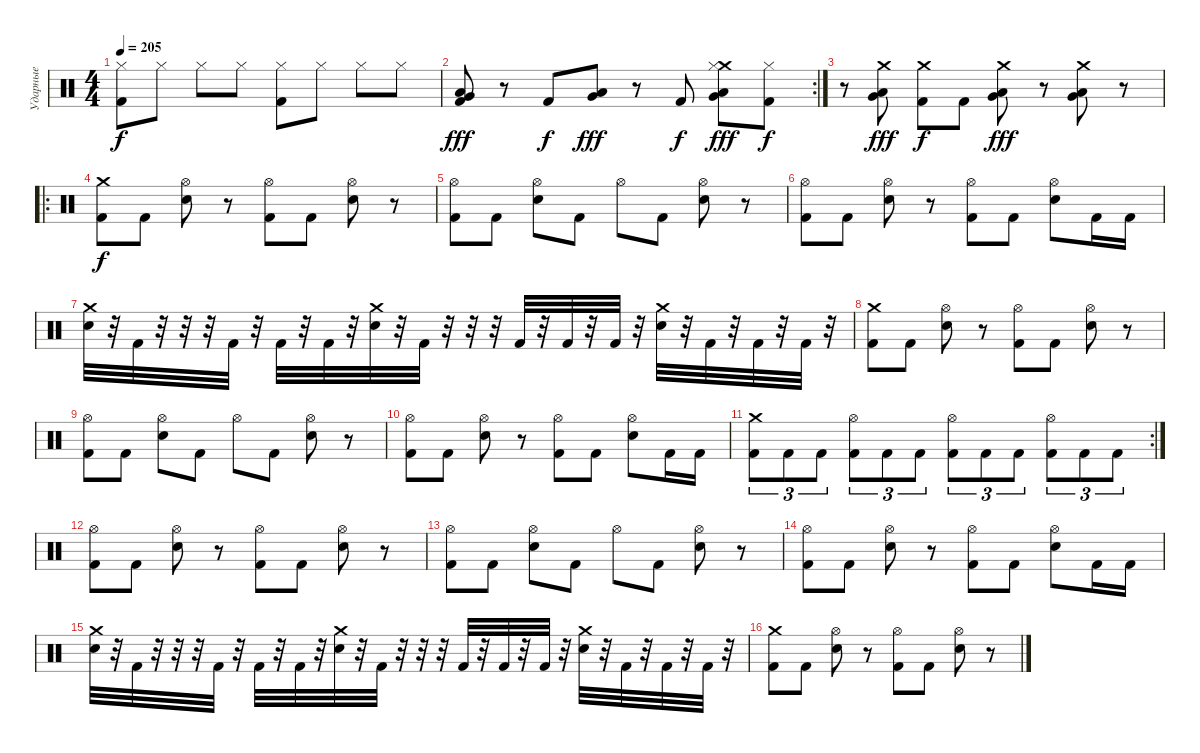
\track ("Ударные" "Ударные") {instrument percussion}
\staff {score}
\articulation defaults
\ts (4 4)
\tempo 205
\clef neutral
\ks c
("Hi-Hat (closed)" "Kick (hit) 2").8{dy f} "Hi-Hat (closed)".8 "Hi-Hat (closed)".8 "Hi-Hat (closed)".8 ("Hi-Hat (closed)" "Kick (hit) 2").8 "Hi-Hat (closed)".8 "Hi-Hat (closed)".8 "Hi-Hat (closed)".8 |
\rc 2
("Low Floor Tom (hit)" "Very Low Tom (hit)" "Kick (hit) 2").8{dy fff} r.8 "Kick (hit) 2".8{dy f} ("Low Floor Tom (hit)" "Very Low Tom (hit)").8{dy fff} r.8 "Kick (hit) 2".8{dy f} ("Crash medium (hit)" "Low Floor Tom (hit)" "Very Low Tom (hit)" "Hi-Hat (closed)").8{dy fff} ("Hi-Hat (closed)" "Kick (hit) 2").8{dy f} |
r.8 ("Low Floor Tom (hit)" "Very Low Tom (hit)" "Crash medium (hit)").8{dy fff} ("Crash medium (hit)" "Kick (hit) 2").8{dy f} "Kick (hit) 2".8 ("Crash medium (hit)" "Low Floor Tom (hit)" "Very Low Tom (hit)").8{dy fff} r.8 ("Crash medium (hit)" "Low Floor Tom (hit)" "Very Low Tom (hit)").8 r.8 |
\ro
("Crash medium (hit)" "Kick (hit) 2").8{dy f} "Kick (hit) 2".8 ("Hi-Hat (open)" "Electric Snare (hit)").8 r.8 ("Hi-Hat (open)" "Kick (hit) 2").8 "Kick (hit) 2".8 ("Hi-Hat (open)" "Electric Snare (hit)").8 r.8 |
("Hi-Hat (open)" "Kick (hit) 2").8 "Kick (hit) 2".8 ("Hi-Hat (open)" "Electric Snare (hit)").8 "Kick (hit) 2".8 "Hi-Hat (open)".8 "Kick (hit) 2".8 ("Hi-Hat (open)" "Electric Snare (hit)").8 r.8 |
("Hi-Hat (open)" "Kick (hit) 2").8 "Kick (hit) 2".8 ("Hi-Hat (open)" "Electric Snare (hit)").8 r.8 ("Hi-Hat (open)" "Kick (hit) 2").8 "Kick (hit) 2".8 ("Hi-Hat (open)" "Electric Snare (hit)").8 "Kick (hit) 2".16 "Kick (hit) 2".16 |
("Crash medium (hit)" "Electric Snare (hit)").32 r.32 "Kick (hit) 2".32 r.32 r.32 r.32 "Kick (hit) 2".32 r.32 "Kick (hit) 2".32 r.32 "Kick (hit) 2".32 r.32 ("Crash medium (hit)" "Electric Snare (hit)").32 r.32 "Kick (hit) 2".32 r.32 r.32 r.32 "Kick (hit) 2".32 r.32 "Kick (hit) 2".32 r.32 "Kick (hit) 2".32 r.32 ("Crash medium (hit)" "Electric Snare (hit)").32 r.32 "Kick (hit) 2".32 r.32 "Kick (hit) 2".32 r.32 "Kick (hit) 2".32 r.32 |
("Crash medium (hit)" "Kick (hit) 2").8 "Kick (hit) 2".8 ("Hi-Hat (open)" "Electric Snare (hit)").8 r.8 ("Hi-Hat (open)" "Kick (hit) 2").8 "Kick (hit) 2".8 ("Hi-Hat (open)" "Electric Snare (hit)").8 r.8 |
("Hi-Hat (open)" "Kick (hit) 2").8 "Kick (hit) 2".8 ("Hi-Hat (open)" "Electric Snare (hit)").8 "Kick (hit) 2".8 "Hi-Hat (open)".8 "Kick (hit) 2".8 ("Hi-Hat (open)" "Electric Snare (hit)").8 r.8 |
("Hi-Hat (open)" "Kick (hit) 2").8 "Kick (hit) 2".8 ("Hi-Hat (open)" "Electric Snare (hit)").8 r.8 ("Hi-Hat (open)" "Kick (hit) 2").8 "Kick (hit) 2".8 ("Hi-Hat (open)" "Electric Snare (hit)").8 "Kick (hit) 2".16 "Kick (hit) 2".16 |
\rc 2
("Crash medium (hit)" "Kick (hit) 2").8{tu (3 2)} "Kick (hit) 2".8{tu (3 2)} "Kick (hit) 2".8{tu (3 2)} ("Hi-Hat (open)" "Kick (hit) 2").8{tu (3 2)} "Kick (hit) 2".8{tu (3 2)} "Kick (hit) 2".8{tu (3 2)} ("Hi-Hat (open)" "Kick (hit) 2").8{tu (3 2)} "Kick (hit) 2".8{tu (3 2)} "Kick (hit) 2".8{tu (3 2)} ("Hi-Hat (open)" "Kick (hit) 2").8{tu (3 2)} "Kick (hit) 2".8{tu (3 2)} "Kick (hit) 2".8{tu (3 2)} |
("Hi-Hat (open)" "Kick (hit) 2").8 "Kick (hit) 2".8 ("Hi-Hat (open)" "Electric Snare (hit)").8 r.8 ("Hi-Hat (open)" "Kick (hit) 2").8 "Kick (hit) 2".8 ("Hi-Hat (open)" "Electric Snare (hit)").8 r.8 |
("Hi-Hat (open)" "Kick (hit) 2").8 "Kick (hit) 2".8 ("Hi-Hat (open)" "Electric Snare (hit)").8 "Kick (hit) 2".8 "Hi-Hat (open)".8 "Kick (hit) 2".8 ("Hi-Hat (open)" "Electric Snare (hit)").8 r.8 |
("Hi-Hat (open)" "Kick (hit) 2").8 "Kick (hit) 2".8 ("Hi-Hat (open)" "Electric Snare (hit)").8 r.8 ("Hi-Hat (open)" "Kick (hit) 2").8 "Kick (hit) 2".8 ("Hi-Hat (open)" "Electric Snare (hit)").8 "Kick (hit) 2".16 "Kick (hit) 2".16 |
("Crash medium (hit)" "Electric Snare (hit)").32 r.32 "Kick (hit) 2".32 r.32 r.32 r.32 "Kick (hit) 2".32 r.32 "Kick (hit) 2".32 r.32 "Kick (hit) 2".32 r.32 ("Crash medium (hit)" "Electric Snare (hit)").32 r.32 "Kick (hit) 2".32 r.32 r.32 r.32 "Kick (hit) 2".32 r.32 "Kick (hit) 2".32 r.32 "Kick (hit) 2".32 r.32 ("Crash medium (hit)" "Electric Snare (hit)").32 r.32 "Kick (hit) 2".32 r.32 "Kick (hit) 2".32 r.32 "Kick (hit) 2".32 r.32 |
("Crash medium (hit)" "Kick (hit) 2").8 "Kick (hit) 2".8 ("Hi-Hat (open)" "Electric Snare (hit)").8 r.8 ("Hi-Hat (open)" "Kick (hit) 2").8 "Kick (hit) 2".8 ("Hi-Hat (open)" "Electric Snare (hit)").8 r.8
